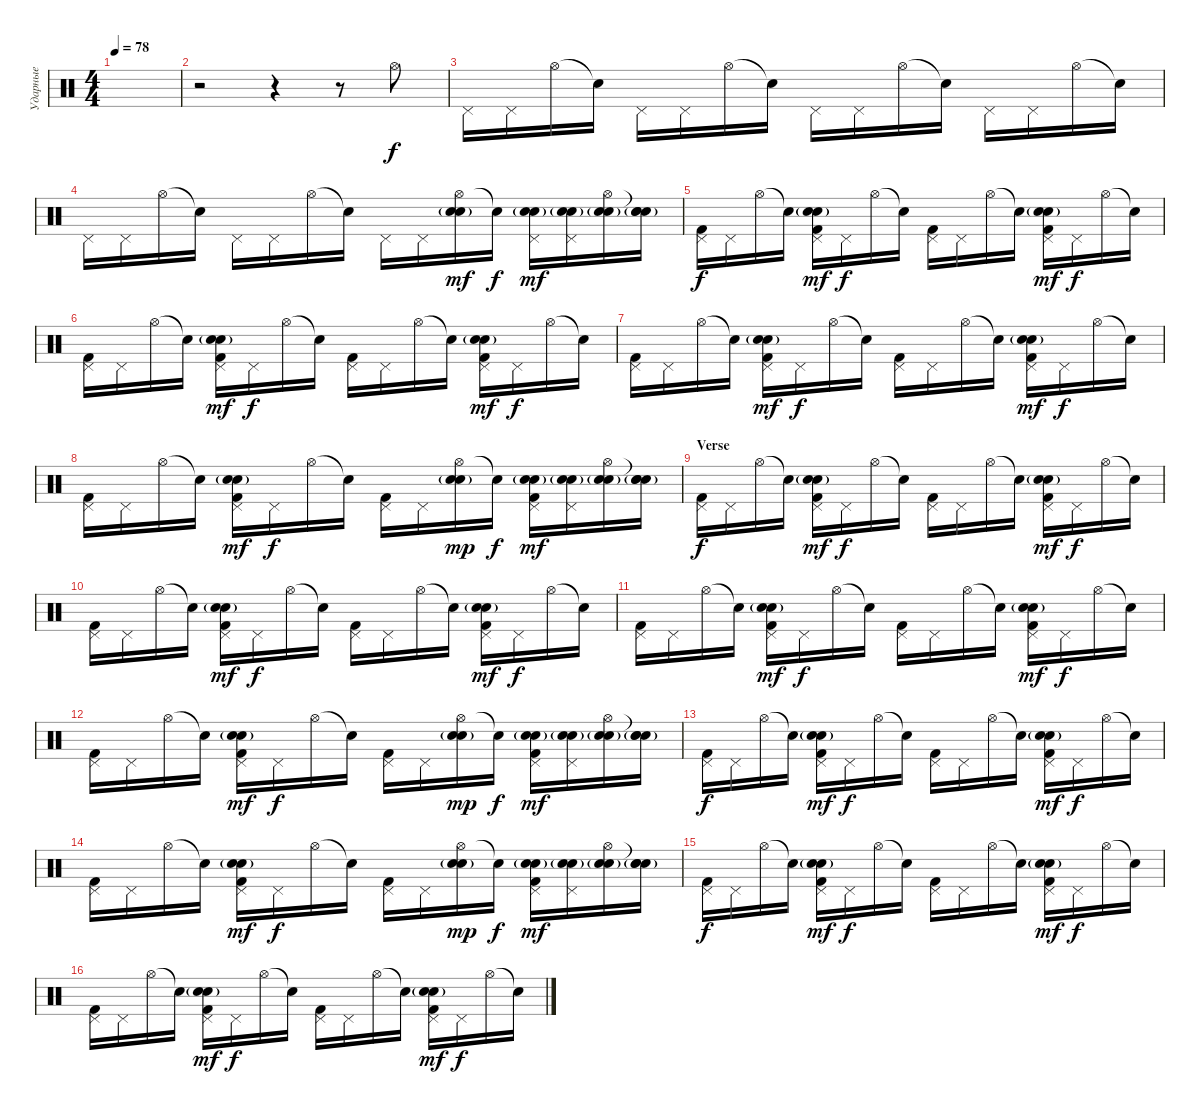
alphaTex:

\track ("Ударные" "Ударные") {instrument percussion}
\staff {score}
\articulation defaults
\ts (4 4)
\tempo 78
\clef neutral
\ks c
|
r.2 r.4 r.8 "Hi-Hat (open)".8 |
"Pedal Hi-Hat (hit)".16 "Pedal Hi-Hat (hit)".16 "Hi-Hat (open)".16 "Snare (hit)"{t}.16 "Pedal Hi-Hat (hit)".16 "Pedal Hi-Hat (hit)".16 "Hi-Hat (open)".16 "Snare (hit)"{t}.16 "Pedal Hi-Hat (hit)".16 "Pedal Hi-Hat (hit)".16 "Hi-Hat (open)".16 "Snare (hit)"{t}.16 "Pedal Hi-Hat (hit)".16 "Pedal Hi-Hat (hit)".16 "Hi-Hat (open)".16 "Snare (hit)"{t}.16 |
"Pedal Hi-Hat (hit)".16 "Pedal Hi-Hat (hit)".16 "Hi-Hat (open)".16 "Snare (hit)"{t}.16 "Pedal Hi-Hat (hit)".16 "Pedal Hi-Hat (hit)".16 "Hi-Hat (open)".16 "Snare (hit)"{t}.16 "Pedal Hi-Hat (hit)".16 "Pedal Hi-Hat (hit)".16 ("Hi-Hat (open)" "Snare (hit) 2" "Electric Snare (hit)"{g}).16{dy mf} "Snare (hit)"{t}.16{dy f} ("Pedal Hi-Hat (hit)" "Snare (hit) 2" "Electric Snare (hit)"{g}).16{dy mf} ("Pedal Hi-Hat (hit)" "Snare (hit) 2" "Electric Snare (hit)"{g}).16 ("Hi-Hat (open)" "Snare (hit) 2" "Electric Snare (hit)"{g}).16 ("Snare (hit)"{t} "Snare (hit) 2" "Electric Snare (hit)"{g}).16 |
("Pedal Hi-Hat (hit)" "Kick (hit) 2").16{dy f} "Pedal Hi-Hat (hit)".16 "Hi-Hat (open)".16 "Snare (hit)"{t}.16 ("Pedal Hi-Hat (hit)" "Snare (hit) 2" "Electric Snare (hit)"{g} "Kick (hit) 2").16{dy mf} "Pedal Hi-Hat (hit)".16{dy f} "Hi-Hat (open)".16 "Snare (hit)"{t}.16 ("Pedal Hi-Hat (hit)" "Kick (hit) 2").16 "Pedal Hi-Hat (hit)".16 "Hi-Hat (open)".16 "Snare (hit)"{t}.16 ("Pedal Hi-Hat (hit)" "Snare (hit) 2" "Electric Snare (hit)"{g} "Kick (hit) 2").16{dy mf} "Pedal Hi-Hat (hit)".16{dy f} "Hi-Hat (open)".16 "Snare (hit)"{t}.16 |
("Pedal Hi-Hat (hit)" "Kick (hit) 2").16 "Pedal Hi-Hat (hit)".16 "Hi-Hat (open)".16 "Snare (hit)"{t}.16 ("Pedal Hi-Hat (hit)" "Snare (hit) 2" "Electric Snare (hit)"{g} "Kick (hit) 2").16{dy mf} "Pedal Hi-Hat (hit)".16{dy f} "Hi-Hat (open)".16 "Snare (hit)"{t}.16 ("Pedal Hi-Hat (hit)" "Kick (hit) 2").16 "Pedal Hi-Hat (hit)".16 "Hi-Hat (open)".16 "Snare (hit)"{t}.16 ("Pedal Hi-Hat (hit)" "Snare (hit) 2" "Electric Snare (hit)"{g} "Kick (hit) 2").16{dy mf} "Pedal Hi-Hat (hit)".16{dy f} "Hi-Hat (open)".16 "Snare (hit)"{t}.16 |
("Pedal Hi-Hat (hit)" "Kick (hit) 2").16 "Pedal Hi-Hat (hit)".16 "Hi-Hat (open)".16 "Snare (hit)"{t}.16 ("Pedal Hi-Hat (hit)" "Snare (hit) 2" "Electric Snare (hit)"{g} "Kick (hit) 2").16{dy mf} "Pedal Hi-Hat (hit)".16{dy f} "Hi-Hat (open)".16 "Snare (hit)"{t}.16 ("Pedal Hi-Hat (hit)" "Kick (hit) 2").16 "Pedal Hi-Hat (hit)".16 "Hi-Hat (open)".16 "Snare (hit)"{t}.16 ("Pedal Hi-Hat (hit)" "Snare (hit) 2" "Electric Snare (hit)"{g} "Kick (hit) 2").16{dy mf} "Pedal Hi-Hat (hit)".16{dy f} "Hi-Hat (open)".16 "Snare (hit)"{t}.16 |
("Pedal Hi-Hat (hit)" "Kick (hit) 2").16 "Pedal Hi-Hat (hit)".16 "Hi-Hat (open)".16 "Snare (hit)"{t}.16 ("Pedal Hi-Hat (hit)" "Snare (hit) 2" "Electric Snare (hit)"{g} "Kick (hit) 2").16{dy mf} "Pedal Hi-Hat (hit)".16{dy f} "Hi-Hat (open)".16 "Snare (hit)"{t}.16 ("Pedal Hi-Hat (hit)" "Kick (hit) 2").16 "Pedal Hi-Hat (hit)".16 ("Hi-Hat (open)" "Snare (hit) 2" "Electric Snare (hit)"{g}).16{dy mp} "Snare (hit)"{t}.16{dy f} ("Pedal Hi-Hat (hit)" "Snare (hit) 2" "Electric Snare (hit)"{g} "Kick (hit) 2").16{dy mf} ("Pedal Hi-Hat (hit)" "Snare (hit) 2" "Electric Snare (hit)"{g}).16 ("Hi-Hat (open)" "Snare (hit) 2" "Electric Snare (hit)"{g}).16 ("Snare (hit)"{t} "Snare (hit) 2" "Electric Snare (hit)"{g}).16 |
\section ("" "Verse")
("Pedal Hi-Hat (hit)" "Kick (hit) 2").16{dy f} "Pedal Hi-Hat (hit)".16 "Hi-Hat (open)".16 "Snare (hit)"{t}.16 ("Pedal Hi-Hat (hit)" "Snare (hit) 2" "Electric Snare (hit)"{g} "Kick (hit) 2").16{dy mf} "Pedal Hi-Hat (hit)".16{dy f} "Hi-Hat (open)".16 "Snare (hit)"{t}.16 ("Pedal Hi-Hat (hit)" "Kick (hit) 2").16 "Pedal Hi-Hat (hit)".16 "Hi-Hat (open)".16 "Snare (hit)"{t}.16 ("Pedal Hi-Hat (hit)" "Snare (hit) 2" "Electric Snare (hit)"{g} "Kick (hit) 2").16{dy mf} "Pedal Hi-Hat (hit)".16{dy f} "Hi-Hat (open)".16 "Snare (hit)"{t}.16 |
("Pedal Hi-Hat (hit)" "Kick (hit) 2").16 "Pedal Hi-Hat (hit)".16 "Hi-Hat (open)".16 "Snare (hit)"{t}.16 ("Pedal Hi-Hat (hit)" "Snare (hit) 2" "Electric Snare (hit)"{g} "Kick (hit) 2").16{dy mf} "Pedal Hi-Hat (hit)".16{dy f} "Hi-Hat (open)".16 "Snare (hit)"{t}.16 ("Pedal Hi-Hat (hit)" "Kick (hit) 2").16 "Pedal Hi-Hat (hit)".16 "Hi-Hat (open)".16 "Snare (hit)"{t}.16 ("Pedal Hi-Hat (hit)" "Snare (hit) 2" "Electric Snare (hit)"{g} "Kick (hit) 2").16{dy mf} "Pedal Hi-Hat (hit)".16{dy f} "Hi-Hat (open)".16 "Snare (hit)"{t}.16 |
("Pedal Hi-Hat (hit)" "Kick (hit) 2").16 "Pedal Hi-Hat (hit)".16 "Hi-Hat (open)".16 "Snare (hit)"{t}.16 ("Pedal Hi-Hat (hit)" "Snare (hit) 2" "Electric Snare (hit)"{g} "Kick (hit) 2").16{dy mf} "Pedal Hi-Hat (hit)".16{dy f} "Hi-Hat (open)".16 "Snare (hit)"{t}.16 ("Pedal Hi-Hat (hit)" "Kick (hit) 2").16 "Pedal Hi-Hat (hit)".16 "Hi-Hat (open)".16 "Snare (hit)"{t}.16 ("Pedal Hi-Hat (hit)" "Snare (hit) 2" "Electric Snare (hit)"{g} "Kick (hit) 2").16{dy mf} "Pedal Hi-Hat (hit)".16{dy f} "Hi-Hat (open)".16 "Snare (hit)"{t}.16 |
("Pedal Hi-Hat (hit)" "Kick (hit) 2").16 "Pedal Hi-Hat (hit)".16 "Hi-Hat (open)".16 "Snare (hit)"{t}.16 ("Pedal Hi-Hat (hit)" "Snare (hit) 2" "Electric Snare (hit)"{g} "Kick (hit) 2").16{dy mf} "Pedal Hi-Hat (hit)".16{dy f} "Hi-Hat (open)".16 "Snare (hit)"{t}.16 ("Pedal Hi-Hat (hit)" "Kick (hit) 2").16 "Pedal Hi-Hat (hit)".16 ("Hi-Hat (open)" "Snare (hit) 2" "Electric Snare (hit)"{g}).16{dy mp} "Snare (hit)"{t}.16{dy f} ("Pedal Hi-Hat (hit)" "Snare (hit) 2" "Electric Snare (hit)"{g} "Kick (hit) 2").16{dy mf} ("Pedal Hi-Hat (hit)" "Snare (hit) 2" "Electric Snare (hit)"{g}).16 ("Hi-Hat (open)" "Snare (hit) 2" "Electric Snare (hit)"{g}).16 ("Snare (hit)"{t} "Snare (hit) 2" "Electric Snare (hit)"{g}).16 |
("Pedal Hi-Hat (hit)" "Kick (hit) 2").16{dy f} "Pedal Hi-Hat (hit)".16 "Hi-Hat (open)".16 "Snare (hit)"{t}.16 ("Pedal Hi-Hat (hit)" "Snare (hit) 2" "Electric Snare (hit)"{g} "Kick (hit) 2").16{dy mf} "Pedal Hi-Hat (hit)".16{dy f} "Hi-Hat (open)".16 "Snare (hit)"{t}.16 ("Pedal Hi-Hat (hit)" "Kick (hit) 2").16 "Pedal Hi-Hat (hit)".16 "Hi-Hat (open)".16 "Snare (hit)"{t}.16 ("Pedal Hi-Hat (hit)" "Snare (hit) 2" "Electric Snare (hit)"{g} "Kick (hit) 2").16{dy mf} "Pedal Hi-Hat (hit)".16{dy f} "Hi-Hat (open)".16 "Snare (hit)"{t}.16 |
("Pedal Hi-Hat (hit)" "Kick (hit) 2").16 "Pedal Hi-Hat (hit)".16 "Hi-Hat (open)".16 "Snare (hit)"{t}.16 ("Pedal Hi-Hat (hit)" "Snare (hit) 2" "Electric Snare (hit)"{g} "Kick (hit) 2").16{dy mf} "Pedal Hi-Hat (hit)".16{dy f} "Hi-Hat (open)".16 "Snare (hit)"{t}.16 ("Pedal Hi-Hat (hit)" "Kick (hit) 2").16 "Pedal Hi-Hat (hit)".16 ("Hi-Hat (open)" "Snare (hit) 2" "Electric Snare (hit)"{g}).16{dy mp} "Snare (hit)"{t}.16{dy f} ("Pedal Hi-Hat (hit)" "Snare (hit) 2" "Electric Snare (hit)"{g} "Kick (hit) 2").16{dy mf} ("Pedal Hi-Hat (hit)" "Snare (hit) 2" "Electric Snare (hit)"{g}).16 ("Hi-Hat (open)" "Snare (hit) 2" "Electric Snare (hit)"{g}).16 ("Snare (hit)"{t} "Snare (hit) 2" "Electric Snare (hit)"{g}).16 |
("Pedal Hi-Hat (hit)" "Kick (hit) 2").16{dy f} "Pedal Hi-Hat (hit)".16 "Hi-Hat (open)".16 "Snare (hit)"{t}.16 ("Pedal Hi-Hat (hit)" "Snare (hit) 2" "Electric Snare (hit)"{g} "Kick (hit) 2").16{dy mf} "Pedal Hi-Hat (hit)".16{dy f} "Hi-Hat (open)".16 "Snare (hit)"{t}.16 ("Pedal Hi-Hat (hit)" "Kick (hit) 2").16 "Pedal Hi-Hat (hit)".16 "Hi-Hat (open)".16 "Snare (hit)"{t}.16 ("Pedal Hi-Hat (hit)" "Snare (hit) 2" "Electric Snare (hit)"{g} "Kick (hit) 2").16{dy mf} "Pedal Hi-Hat (hit)".16{dy f} "Hi-Hat (open)".16 "Snare (hit)"{t}.16 |
("Pedal Hi-Hat (hit)" "Kick (hit) 2").16 "Pedal Hi-Hat (hit)".16 "Hi-Hat (open)".16 "Snare (hit)"{t}.16 ("Pedal Hi-Hat (hit)" "Snare (hit) 2" "Electric Snare (hit)"{g} "Kick (hit) 2").16{dy mf} "Pedal Hi-Hat (hit)".16{dy f} "Hi-Hat (open)".16 "Snare (hit)"{t}.16 ("Pedal Hi-Hat (hit)" "Kick (hit) 2").16 "Pedal Hi-Hat (hit)".16 "Hi-Hat (open)".16 "Snare (hit)"{t}.16 ("Pedal Hi-Hat (hit)" "Snare (hit) 2" "Electric Snare (hit)"{g} "Kick (hit) 2").16{dy mf} "Pedal Hi-Hat (hit)".16{dy f} "Hi-Hat (open)".16 "Snare (hit)"{t}.16
